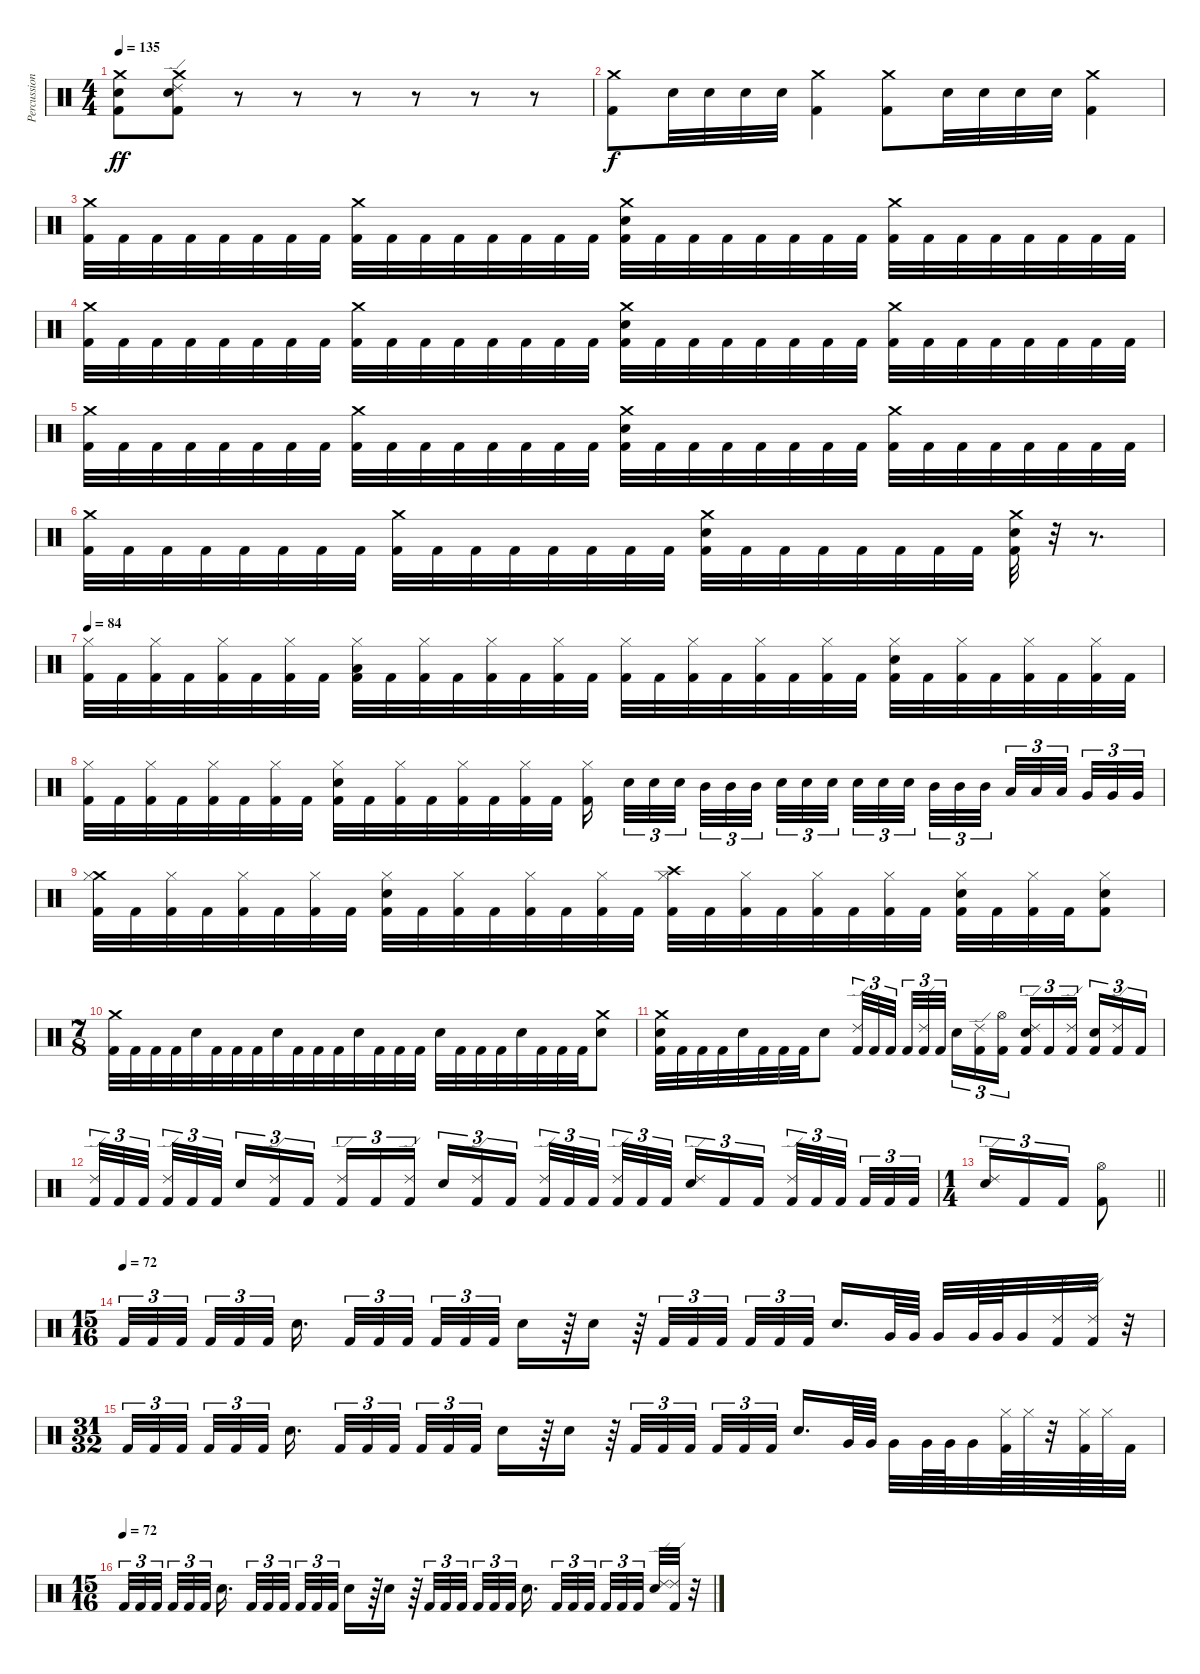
\track ("Percussion" "Percussion") {instrument percussion}
\staff {score}
\articulation defaults
\ts (4 4)
\tempo 135
\clef neutral
\ks c
("Crash medium (hit)" "Electric Snare (hit)" "Kick (hit) 2").8{dy ff} ("Ride (edge) 2" "Crash medium (hit)" "Electric Snare (hit)" "Kick (hit) 2").8 r.8 r.8 r.8 r.8 r.8 r.8 |
("Crash medium (hit)" "Kick (hit) 2").8{dy f} "Electric Snare (hit)".32 "Electric Snare (hit)".32 "Electric Snare (hit)".32 "Electric Snare (hit)".32 ("Crash medium (hit)" "Kick (hit) 2").4 ("Crash medium (hit)" "Kick (hit) 2").8 "Electric Snare (hit)".32 "Electric Snare (hit)".32 "Electric Snare (hit)".32 "Electric Snare (hit)".32 ("Crash medium (hit)" "Kick (hit) 2").4 |
("Crash medium (hit)" "Kick (hit) 2").32 "Kick (hit) 2".32 "Kick (hit) 2".32 "Kick (hit) 2".32 "Kick (hit) 2".32 "Kick (hit) 2".32 "Kick (hit) 2".32 "Kick (hit) 2".32 ("Crash medium (hit)" "Kick (hit) 2").32 "Kick (hit) 2".32 "Kick (hit) 2".32 "Kick (hit) 2".32 "Kick (hit) 2".32 "Kick (hit) 2".32 "Kick (hit) 2".32 "Kick (hit) 2".32 ("Crash medium (hit)" "Electric Snare (hit)" "Kick (hit) 2").32 "Kick (hit) 2".32 "Kick (hit) 2".32 "Kick (hit) 2".32 "Kick (hit) 2".32 "Kick (hit) 2".32 "Kick (hit) 2".32 "Kick (hit) 2".32 ("Crash medium (hit)" "Kick (hit) 2").32 "Kick (hit) 2".32 "Kick (hit) 2".32 "Kick (hit) 2".32 "Kick (hit) 2".32 "Kick (hit) 2".32 "Kick (hit) 2".32 "Kick (hit) 2".32 |
("Crash medium (hit)" "Kick (hit) 2").32 "Kick (hit) 2".32 "Kick (hit) 2".32 "Kick (hit) 2".32 "Kick (hit) 2".32 "Kick (hit) 2".32 "Kick (hit) 2".32 "Kick (hit) 2".32 ("Crash medium (hit)" "Kick (hit) 2").32 "Kick (hit) 2".32 "Kick (hit) 2".32 "Kick (hit) 2".32 "Kick (hit) 2".32 "Kick (hit) 2".32 "Kick (hit) 2".32 "Kick (hit) 2".32 ("Crash medium (hit)" "Electric Snare (hit)" "Kick (hit) 2").32 "Kick (hit) 2".32 "Kick (hit) 2".32 "Kick (hit) 2".32 "Kick (hit) 2".32 "Kick (hit) 2".32 "Kick (hit) 2".32 "Kick (hit) 2".32 ("Crash medium (hit)" "Kick (hit) 2").32 "Kick (hit) 2".32 "Kick (hit) 2".32 "Kick (hit) 2".32 "Kick (hit) 2".32 "Kick (hit) 2".32 "Kick (hit) 2".32 "Kick (hit) 2".32 |
("Crash medium (hit)" "Kick (hit) 2").32 "Kick (hit) 2".32 "Kick (hit) 2".32 "Kick (hit) 2".32 "Kick (hit) 2".32 "Kick (hit) 2".32 "Kick (hit) 2".32 "Kick (hit) 2".32 ("Crash medium (hit)" "Kick (hit) 2").32 "Kick (hit) 2".32 "Kick (hit) 2".32 "Kick (hit) 2".32 "Kick (hit) 2".32 "Kick (hit) 2".32 "Kick (hit) 2".32 "Kick (hit) 2".32 ("Crash medium (hit)" "Electric Snare (hit)" "Kick (hit) 2").32 "Kick (hit) 2".32 "Kick (hit) 2".32 "Kick (hit) 2".32 "Kick (hit) 2".32 "Kick (hit) 2".32 "Kick (hit) 2".32 "Kick (hit) 2".32 ("Crash medium (hit)" "Kick (hit) 2").32 "Kick (hit) 2".32 "Kick (hit) 2".32 "Kick (hit) 2".32 "Kick (hit) 2".32 "Kick (hit) 2".32 "Kick (hit) 2".32 "Kick (hit) 2".32 |
("Crash medium (hit)" "Kick (hit) 2").32 "Kick (hit) 2".32 "Kick (hit) 2".32 "Kick (hit) 2".32 "Kick (hit) 2".32 "Kick (hit) 2".32 "Kick (hit) 2".32 "Kick (hit) 2".32 ("Crash medium (hit)" "Kick (hit) 2").32 "Kick (hit) 2".32 "Kick (hit) 2".32 "Kick (hit) 2".32 "Kick (hit) 2".32 "Kick (hit) 2".32 "Kick (hit) 2".32 "Kick (hit) 2".32 ("Crash medium (hit)" "Electric Snare (hit)" "Kick (hit) 2").32 "Kick (hit) 2".32 "Kick (hit) 2".32 "Kick (hit) 2".32 "Kick (hit) 2".32 "Kick (hit) 2".32 "Kick (hit) 2".32 "Kick (hit) 2".32 ("Crash medium (hit)" "Electric Snare (hit)" "Kick (hit) 2").32 r.32 r.8{d} |
\tempo 84
("Hi-Hat (closed)" "Kick (hit) 2").32 "Kick (hit) 2".32 ("Hi-Hat (closed)" "Kick (hit) 2").32 "Kick (hit) 2".32 ("Hi-Hat (closed)" "Kick (hit) 2").32 "Kick (hit) 2".32 ("Hi-Hat (closed)" "Kick (hit) 2").32 "Kick (hit) 2".32 ("Hi-Hat (closed)" "Low Tom (hit)" "Kick (hit) 2").32 "Kick (hit) 2".32 ("Hi-Hat (closed)" "Kick (hit) 2").32 "Kick (hit) 2".32 ("Hi-Hat (closed)" "Kick (hit) 2").32 "Kick (hit) 2".32 ("Hi-Hat (closed)" "Kick (hit) 2").32 "Kick (hit) 2".32 ("Hi-Hat (closed)" "Kick (hit) 2").32 "Kick (hit) 2".32 ("Hi-Hat (closed)" "Kick (hit) 2").32 "Kick (hit) 2".32 ("Hi-Hat (closed)" "Kick (hit) 2").32 "Kick (hit) 2".32 ("Hi-Hat (closed)" "Kick (hit) 2").32 "Kick (hit) 2".32 ("Hi-Hat (closed)" "Electric Snare (hit)" "Kick (hit) 2").32 "Kick (hit) 2".32 ("Hi-Hat (closed)" "Kick (hit) 2").32 "Kick (hit) 2".32 ("Hi-Hat (closed)" "Kick (hit) 2").32 "Kick (hit) 2".32 ("Hi-Hat (closed)" "Kick (hit) 2").32 "Kick (hit) 2".32 |
("Hi-Hat (closed)" "Kick (hit) 2").32 "Kick (hit) 2".32 ("Hi-Hat (closed)" "Kick (hit) 2").32 "Kick (hit) 2".32 ("Hi-Hat (closed)" "Kick (hit) 2").32 "Kick (hit) 2".32 ("Hi-Hat (closed)" "Kick (hit) 2").32 "Kick (hit) 2".32 ("Hi-Hat (closed)" "Electric Snare (hit)" "Kick (hit) 2").32 "Kick (hit) 2".32 ("Hi-Hat (closed)" "Kick (hit) 2").32 "Kick (hit) 2".32 ("Hi-Hat (closed)" "Kick (hit) 2").32 "Kick (hit) 2".32 ("Hi-Hat (closed)" "Kick (hit) 2").32 "Kick (hit) 2".32 ("Hi-Hat (closed)" "Kick (hit) 2").16{beam splitsecondary} "Electric Snare (hit)".32{tu (3 2)} "Electric Snare (hit)".32{tu (3 2)} "Electric Snare (hit)".32{tu (3 2) beam splitsecondary} "Mid Tom (hit)".32{tu (3 2)} "Mid Tom (hit)".32{tu (3 2)} "Mid Tom (hit)".32{tu (3 2) beam splitsecondary} "Electric Snare (hit)".32{tu (3 2)} "Electric Snare (hit)".32{tu (3 2)} "Electric Snare (hit)".32{tu (3 2)} "Electric Snare (hit)".32{tu (3 2)} "Electric Snare (hit)".32{tu (3 2)} "Electric Snare (hit)".32{tu (3 2) beam splitsecondary} "Mid Tom (hit)".32{tu (3 2)} "Mid Tom (hit)".32{tu (3 2)} "Mid Tom (hit)".32{tu (3 2) beam splitsecondary} "Low Tom (hit)".32{tu (3 2)} "Low Tom (hit)".32{tu (3 2)} "Low Tom (hit)".32{tu (3 2) beam splitsecondary} "Very Low Tom (hit)".32{tu (3 2)} "Very Low Tom (hit)".32{tu (3 2)} "Very Low Tom (hit)".32{tu (3 2)} |
("Crash medium (hit)" "Hi-Hat (closed)" "Kick (hit) 2").32 "Kick (hit) 2".32 ("Hi-Hat (closed)" "Kick (hit) 2").32 "Kick (hit) 2".32 ("Hi-Hat (closed)" "Kick (hit) 2").32 "Kick (hit) 2".32 ("Hi-Hat (closed)" "Kick (hit) 2").32 "Kick (hit) 2".32 ("Hi-Hat (closed)" "Electric Snare (hit)" "Kick (hit) 2").32 "Kick (hit) 2".32 ("Hi-Hat (closed)" "Kick (hit) 2").32 "Kick (hit) 2".32 ("Hi-Hat (closed)" "Kick (hit) 2").32 "Kick (hit) 2".32 ("Hi-Hat (closed)" "Kick (hit) 2").32 "Kick (hit) 2".32 ("Crash high (hit)" "Hi-Hat (closed)" "Kick (hit) 2").32 "Kick (hit) 2".32 ("Hi-Hat (closed)" "Kick (hit) 2").32 "Kick (hit) 2".32 ("Hi-Hat (closed)" "Kick (hit) 2").32 "Kick (hit) 2".32 ("Hi-Hat (closed)" "Kick (hit) 2").32 "Kick (hit) 2".32 ("Hi-Hat (closed)" "Electric Snare (hit)" "Kick (hit) 2").32 "Kick (hit) 2".32 ("Hi-Hat (closed)" "Kick (hit) 2").32 "Kick (hit) 2".32 ("Hi-Hat (closed)" "Electric Snare (hit)" "Kick (hit) 2").8 |
\ts (7 8)
("Crash medium (hit)" "Kick (hit) 2").32 "Kick (hit) 2".32 "Kick (hit) 2".32 "Kick (hit) 2".32 "Electric Snare (hit)".32 "Kick (hit) 2".32 "Kick (hit) 2".32 "Kick (hit) 2".32 "Electric Snare (hit)".32 "Kick (hit) 2".32 "Kick (hit) 2".32 "Kick (hit) 2".32 "Electric Snare (hit)".32 "Kick (hit) 2".32 "Kick (hit) 2".32 "Kick (hit) 2".32 "Electric Snare (hit)".32 "Kick (hit) 2".32 "Kick (hit) 2".32 "Kick (hit) 2".32 "Electric Snare (hit)".32 "Kick (hit) 2".32 "Kick (hit) 2".32 "Kick (hit) 2".32 ("Crash medium (hit)" "Electric Snare (hit)").8 |
("Crash medium (hit)" "Electric Snare (hit)" "Kick (hit) 2").32 "Kick (hit) 2".32 "Kick (hit) 2".32 "Kick (hit) 2".32 "Electric Snare (hit)".32 "Kick (hit) 2".32 "Kick (hit) 2".32 "Kick (hit) 2".32 "Electric Snare (hit)".8 ("Ride (edge) 2" "Kick (hit) 2").32{tu (3 2)} "Kick (hit) 2".32{tu (3 2)} "Kick (hit) 2".32{tu (3 2) beam splitsecondary} "Kick (hit) 2".32{tu (3 2)} ("Ride (edge) 2" "Kick (hit) 2").32{tu (3 2)} "Kick (hit) 2".32{tu (3 2)} "Electric Snare (hit)".16{tu (3 2)} ("Ride (edge) 2" "Kick (hit) 2").16{tu (3 2)} ("Hi-Hat (open)" "Kick (hit) 2").16{tu (3 2)} ("Ride (edge) 2" "Electric Snare (hit)" "Kick (hit) 2").16{tu (3 2)} "Kick (hit) 2".16{tu (3 2)} ("Ride (edge) 2" "Kick (hit) 2").16{tu (3 2)} ("Electric Snare (hit)" "Kick (hit) 2").16{tu (3 2)} ("Ride (edge) 2" "Kick (hit) 2").16{tu (3 2)} "Kick (hit) 2".16{tu (3 2)} |
("Ride (edge) 2" "Kick (hit) 2").32{tu (3 2)} "Kick (hit) 2".32{tu (3 2)} "Kick (hit) 2".32{tu (3 2) beam splitsecondary} ("Ride (edge) 2" "Kick (hit) 2").32{tu (3 2)} "Kick (hit) 2".32{tu (3 2)} "Kick (hit) 2".32{tu (3 2)} "Electric Snare (hit)".16{tu (3 2)} ("Ride (edge) 2" "Kick (hit) 2").16{tu (3 2)} "Kick (hit) 2".16{tu (3 2)} ("Ride (edge) 2" "Kick (hit) 2").16{tu (3 2)} "Kick (hit) 2".16{tu (3 2)} ("Ride (edge) 2" "Kick (hit) 2").16{tu (3 2)} "Electric Snare (hit)".16{tu (3 2)} ("Ride (edge) 2" "Kick (hit) 2").16{tu (3 2)} "Kick (hit) 2".16{tu (3 2)} ("Ride (edge) 2" "Kick (hit) 2").32{tu (3 2)} "Kick (hit) 2".32{tu (3 2)} "Kick (hit) 2".32{tu (3 2) beam splitsecondary} ("Ride (edge) 2" "Kick (hit) 2").32{tu (3 2)} "Kick (hit) 2".32{tu (3 2)} "Kick (hit) 2".32{tu (3 2)} ("Ride (edge) 2" "Electric Snare (hit)").16{tu (3 2)} "Kick (hit) 2".16{tu (3 2)} "Kick (hit) 2".16{tu (3 2)} ("Ride (edge) 2" "Kick (hit) 2").32{tu (3 2)} "Kick (hit) 2".32{tu (3 2)} "Kick (hit) 2".32{tu (3 2) beam splitsecondary} "Kick (hit) 2".32{tu (3 2)} "Kick (hit) 2".32{tu (3 2)} "Kick (hit) 2".32{tu (3 2)} |
\ts (1 4)
\barLineRight lightlight
("Ride (edge) 2" "Electric Snare (hit)").16{tu (3 2)} "Kick (hit) 2".16{tu (3 2)} "Kick (hit) 2".16{tu (3 2)} ("Hi-Hat (open)" "Kick (hit) 2").8 |
\ts (15 16)
\tempo (72)
"Kick (hit) 2".32{tu (3 2)} "Kick (hit) 2".32{tu (3 2)} "Kick (hit) 2".32{tu (3 2) beam splitsecondary} "Kick (hit) 2".32{tu (3 2)} "Kick (hit) 2".32{tu (3 2)} "Kick (hit) 2".32{tu (3 2) beam splitsecondary} "Electric Snare (hit)".16{d} "Kick (hit) 2".32{tu (3 2)} "Kick (hit) 2".32{tu (3 2)} "Kick (hit) 2".32{tu (3 2) beam splitsecondary} "Kick (hit) 2".32{tu (3 2)} "Kick (hit) 2".32{tu (3 2)} "Kick (hit) 2".32{tu (3 2) beam splitsecondary} "Electric Snare (hit)".16 r.64 "Electric Snare (hit)".16 r.64 "Kick (hit) 2".32{tu (3 2)} "Kick (hit) 2".32{tu (3 2)} "Kick (hit) 2".32{tu (3 2)} "Kick (hit) 2".32{tu (3 2)} "Kick (hit) 2".32{tu (3 2)} "Kick (hit) 2".32{tu (3 2) beam splitsecondary} "Electric Snare (hit)".16{d} "Very Low Tom (hit)".64 "Very Low Tom (hit)".64 "Very Low Tom (hit)".32 "Very Low Tom (hit)".64 "Very Low Tom (hit)".64 "Very Low Tom (hit)".32 ("Ride (edge) 2" "Kick (hit) 2").32 ("Ride (edge) 2" "Kick (hit) 2").32 r.32 |
\ts (31 32)
"Kick (hit) 2".32{tu (3 2)} "Kick (hit) 2".32{tu (3 2)} "Kick (hit) 2".32{tu (3 2)} "Kick (hit) 2".32{tu (3 2)} "Kick (hit) 2".32{tu (3 2)} "Kick (hit) 2".32{tu (3 2)} "Electric Snare (hit)".16{d} "Kick (hit) 2".32{tu (3 2)} "Kick (hit) 2".32{tu (3 2)} "Kick (hit) 2".32{tu (3 2)} "Kick (hit) 2".32{tu (3 2)} "Kick (hit) 2".32{tu (3 2)} "Kick (hit) 2".32{tu (3 2)} "Electric Snare (hit)".16 r.64 "Electric Snare (hit)".16 r.64 "Kick (hit) 2".32{tu (3 2)} "Kick (hit) 2".32{tu (3 2)} "Kick (hit) 2".32{tu (3 2)} "Kick (hit) 2".32{tu (3 2)} "Kick (hit) 2".32{tu (3 2)} "Kick (hit) 2".32{tu (3 2)} "Electric Snare (hit)".16{d} "Very Low Tom (hit)".64 "Very Low Tom (hit)".64 "Very Low Tom (hit)".32 "Very Low Tom (hit)".64 "Very Low Tom (hit)".64 "Very Low Tom (hit)".32 ("Hi-Hat (closed)" "Kick (hit) 2").64 "Hi-Hat (closed)".64 r.32 ("Hi-Hat (closed)" "Kick (hit) 2").64 "Hi-Hat (closed)".64 "Kick (hit) 2".32 |
\ts (15 16)
\tempo (72)
"Kick (hit) 2".32{tu (3 2)} "Kick (hit) 2".32{tu (3 2)} "Kick (hit) 2".32{tu (3 2) beam splitsecondary} "Kick (hit) 2".32{tu (3 2)} "Kick (hit) 2".32{tu (3 2)} "Kick (hit) 2".32{tu (3 2) beam splitsecondary} "Electric Snare (hit)".16{d} "Kick (hit) 2".32{tu (3 2)} "Kick (hit) 2".32{tu (3 2)} "Kick (hit) 2".32{tu (3 2) beam splitsecondary} "Kick (hit) 2".32{tu (3 2)} "Kick (hit) 2".32{tu (3 2)} "Kick (hit) 2".32{tu (3 2) beam splitsecondary} "Electric Snare (hit)".16 r.64 "Electric Snare (hit)".16 r.64 "Kick (hit) 2".32{tu (3 2)} "Kick (hit) 2".32{tu (3 2)} "Kick (hit) 2".32{tu (3 2)} "Kick (hit) 2".32{tu (3 2)} "Kick (hit) 2".32{tu (3 2)} "Kick (hit) 2".32{tu (3 2) beam splitsecondary} "Electric Snare (hit)".16{d beam splitsecondary} "Kick (hit) 2".32{tu (3 2)} "Kick (hit) 2".32{tu (3 2)} "Kick (hit) 2".32{tu (3 2) beam splitsecondary} "Kick (hit) 2".32{tu (3 2)} "Kick (hit) 2".32{tu (3 2)} "Kick (hit) 2".32{tu (3 2) beam splitsecondary} ("Ride (edge) 2" "Electric Snare (hit)").32 ("Ride (edge) 2" "Kick (hit) 2").32 r.32
